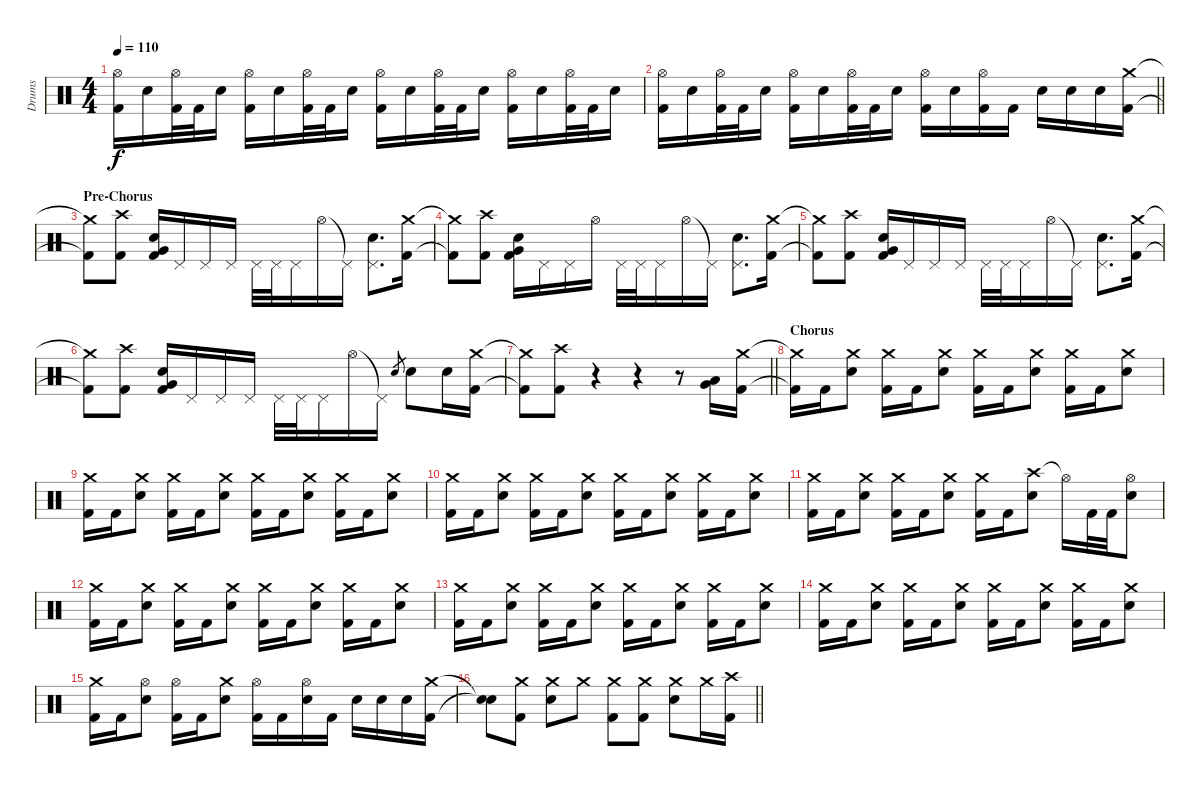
\track ("Drums" "Drums") {instrument percussion}
\staff {score}
\articulation defaults
\ts (4 4)
\tempo 110
\clef neutral
\ks c
("Hi-Hat (open)" "Kick (hit) 2").16{dy f} "Electric Snare (hit)".16 ("Hi-Hat (open)" "Kick (hit) 2").32 "Kick (hit) 2".32 "Electric Snare (hit)".16 ("Hi-Hat (open)" "Kick (hit) 2").16 "Electric Snare (hit)".16 ("Hi-Hat (open)" "Kick (hit) 2").32 "Kick (hit) 2".32 "Electric Snare (hit)".16 ("Hi-Hat (open)" "Kick (hit) 2").16 "Electric Snare (hit)".16 ("Hi-Hat (open)" "Kick (hit) 2").32 "Kick (hit) 2".32 "Electric Snare (hit)".16 ("Hi-Hat (open)" "Kick (hit) 2").16 "Electric Snare (hit)".16 ("Hi-Hat (open)" "Kick (hit) 2").32 "Kick (hit) 2".32 "Electric Snare (hit)".16 |
\barLineRight lightlight
("Hi-Hat (open)" "Kick (hit) 2").16 "Electric Snare (hit)".16 ("Hi-Hat (open)" "Kick (hit) 2").32 "Kick (hit) 2".32 "Electric Snare (hit)".16 ("Hi-Hat (open)" "Kick (hit) 2").16 "Electric Snare (hit)".16 ("Hi-Hat (open)" "Kick (hit) 2").32 "Kick (hit) 2".32 "Electric Snare (hit)".16 ("Hi-Hat (open)" "Kick (hit) 2").16 "Electric Snare (hit)".16 ("Hi-Hat (open)" "Kick (hit) 2").16 "Kick (hit) 2".16 "Electric Snare (hit)".16 "Electric Snare (hit)".16 "Electric Snare (hit)".16 ("Crash medium (hit)" "Kick (hit) 2").16 |
\section ("" "Pre-Chorus")
("Crash medium (hit)"{t} "Kick (hit) 2"{t}).8 ("Crash high (hit)" "Kick (hit) 2").8 ("Very Low Tom (hit)" "Electric Snare (hit)" "Kick (hit) 2").16 "Pedal Hi-Hat (hit)".16 "Pedal Hi-Hat (hit)".16 "Pedal Hi-Hat (hit)".16 "Pedal Hi-Hat (hit)".32 "Pedal Hi-Hat (hit)".32 "Pedal Hi-Hat (hit)".16 "Hi-Hat (open)".16 "Pedal Hi-Hat (hit)"{t}.16 ("Pedal Hi-Hat (hit)" "Electric Snare (hit)").8{d} ("Crash medium (hit)" "Kick (hit) 2").16 |
("Crash medium (hit)"{t} "Kick (hit) 2"{t}).8 ("Crash high (hit)" "Kick (hit) 2").8 ("Very Low Tom (hit)" "Electric Snare (hit)" "Kick (hit) 2").16 "Pedal Hi-Hat (hit)".16 "Pedal Hi-Hat (hit)".16 "Hi-Hat (open)".16 "Pedal Hi-Hat (hit)".32 "Pedal Hi-Hat (hit)".32 "Pedal Hi-Hat (hit)".16 "Hi-Hat (open)".16 "Pedal Hi-Hat (hit)"{t}.16 ("Pedal Hi-Hat (hit)" "Electric Snare (hit)").8{d} ("Crash medium (hit)" "Kick (hit) 2").16 |
("Crash medium (hit)"{t} "Kick (hit) 2"{t}).8 ("Crash high (hit)" "Kick (hit) 2").8 ("Very Low Tom (hit)" "Electric Snare (hit)" "Kick (hit) 2").16 "Pedal Hi-Hat (hit)".16 "Pedal Hi-Hat (hit)".16 "Pedal Hi-Hat (hit)".16 "Pedal Hi-Hat (hit)".32 "Pedal Hi-Hat (hit)".32 "Pedal Hi-Hat (hit)".16 "Hi-Hat (open)".16 "Pedal Hi-Hat (hit)"{t}.16 ("Pedal Hi-Hat (hit)" "Electric Snare (hit)").8{d} ("Crash medium (hit)" "Kick (hit) 2").16 |
("Crash medium (hit)"{t} "Kick (hit) 2"{t}).8 ("Crash high (hit)" "Kick (hit) 2").8 ("Very Low Tom (hit)" "Electric Snare (hit)" "Kick (hit) 2").16 "Pedal Hi-Hat (hit)".16 "Pedal Hi-Hat (hit)".16 "Pedal Hi-Hat (hit)".16 "Pedal Hi-Hat (hit)".32 "Pedal Hi-Hat (hit)".32 "Pedal Hi-Hat (hit)".16 "Hi-Hat (open)".16 "Pedal Hi-Hat (hit)"{t}.16 "Electric Snare (hit)".8{gr} "Electric Snare (hit)".8 "Electric Snare (hit)".16 ("Crash medium (hit)" "Kick (hit) 2").16 |
\barLineRight lightlight
("Crash medium (hit)"{t} "Kick (hit) 2"{t}).8 ("Crash high (hit)" "Kick (hit) 2").8 r.4 r.4 r.8 ("Low Tom (hit)" "Very Low Tom (hit)").16 ("Crash medium (hit)" "Kick (hit) 2").16 |
\section ("" "Chorus")
("Crash medium (hit)"{t} "Kick (hit) 2"{t}).16 "Kick (hit) 2".16 ("Crash medium (hit)" "Electric Snare (hit)").8 ("Crash medium (hit)" "Kick (hit) 2").16 "Kick (hit) 2".16 ("Crash medium (hit)" "Electric Snare (hit)").8 ("Crash medium (hit)" "Kick (hit) 2").16 "Kick (hit) 2".16 ("Crash medium (hit)" "Electric Snare (hit)").8 ("Crash medium (hit)" "Kick (hit) 2").16 "Kick (hit) 2".16 ("Crash medium (hit)" "Electric Snare (hit)").8 |
("Crash medium (hit)" "Kick (hit) 2").16 "Kick (hit) 2".16 ("Crash medium (hit)" "Electric Snare (hit)").8 ("Crash medium (hit)" "Kick (hit) 2").16 "Kick (hit) 2".16 ("Crash medium (hit)" "Electric Snare (hit)").8 ("Crash medium (hit)" "Kick (hit) 2").16 "Kick (hit) 2".16 ("Crash medium (hit)" "Electric Snare (hit)").8 ("Crash medium (hit)" "Kick (hit) 2").16 "Kick (hit) 2".16 ("Crash medium (hit)" "Electric Snare (hit)").8 |
("Crash medium (hit)" "Kick (hit) 2").16 "Kick (hit) 2".16 ("Crash medium (hit)" "Electric Snare (hit)").8 ("Crash medium (hit)" "Kick (hit) 2").16 "Kick (hit) 2".16 ("Crash medium (hit)" "Electric Snare (hit)").8 ("Crash medium (hit)" "Kick (hit) 2").16 "Kick (hit) 2".16 ("Crash medium (hit)" "Electric Snare (hit)").8 ("Crash medium (hit)" "Kick (hit) 2").16 "Kick (hit) 2".16 ("Crash medium (hit)" "Electric Snare (hit)").8 |
("Crash medium (hit)" "Kick (hit) 2").16 "Kick (hit) 2".16 ("Crash medium (hit)" "Electric Snare (hit)").8 ("Crash medium (hit)" "Kick (hit) 2").16 "Kick (hit) 2".16 ("Crash medium (hit)" "Electric Snare (hit)").8 ("Crash medium (hit)" "Kick (hit) 2").16 "Kick (hit) 2".16 ("Crash high (hit)" "Electric Snare (hit)").8 "Hi-Hat (open)"{t}.16 "Kick (hit) 2".32 "Kick (hit) 2".32 ("Hi-Hat (open)" "Electric Snare (hit)").8 |
("Crash medium (hit)" "Kick (hit) 2").16 "Kick (hit) 2".16 ("Crash medium (hit)" "Electric Snare (hit)").8 ("Crash medium (hit)" "Kick (hit) 2").16 "Kick (hit) 2".16 ("Crash medium (hit)" "Electric Snare (hit)").8 ("Crash medium (hit)" "Kick (hit) 2").16 "Kick (hit) 2".16 ("Crash medium (hit)" "Electric Snare (hit)").8 ("Crash medium (hit)" "Kick (hit) 2").16 "Kick (hit) 2".16 ("Crash medium (hit)" "Electric Snare (hit)").8 |
("Crash medium (hit)" "Kick (hit) 2").16 "Kick (hit) 2".16 ("Crash medium (hit)" "Electric Snare (hit)").8 ("Crash medium (hit)" "Kick (hit) 2").16 "Kick (hit) 2".16 ("Crash medium (hit)" "Electric Snare (hit)").8 ("Crash medium (hit)" "Kick (hit) 2").16 "Kick (hit) 2".16 ("Crash medium (hit)" "Electric Snare (hit)").8 ("Crash medium (hit)" "Kick (hit) 2").16 "Kick (hit) 2".16 ("Crash medium (hit)" "Electric Snare (hit)").8 |
("Crash medium (hit)" "Kick (hit) 2").16 "Kick (hit) 2".16 ("Crash medium (hit)" "Electric Snare (hit)").8 ("Crash medium (hit)" "Kick (hit) 2").16 "Kick (hit) 2".16 ("Crash medium (hit)" "Electric Snare (hit)").8 ("Crash medium (hit)" "Kick (hit) 2").16 "Kick (hit) 2".16 ("Crash medium (hit)" "Electric Snare (hit)").8 ("Crash medium (hit)" "Kick (hit) 2").16 "Kick (hit) 2".16 ("Crash medium (hit)" "Electric Snare (hit)").8 |
("Crash medium (hit)" "Kick (hit) 2").16 "Kick (hit) 2".16 ("Hi-Hat (open)" "Electric Snare (hit)").8 ("Hi-Hat (open)" "Kick (hit) 2").16 "Kick (hit) 2".16 ("Crash medium (hit)" "Electric Snare (hit)").8 ("Hi-Hat (open)" "Kick (hit) 2").16 "Kick (hit) 2".16 ("Hi-Hat (open)" "Electric Snare (hit)").16 "Kick (hit) 2".16 "Electric Snare (hit)".16 "Electric Snare (hit)".16 "Electric Snare (hit)".16 ("Crash medium (hit)" "Kick (hit) 2").16 |
\barLineRight lightlight
("Snare (hit)"{t} "Snare (hit)"{t}).8 ("Crash medium (hit)" "Kick (hit) 2").8 ("Crash medium (hit)" "Electric Snare (hit)").8 "Crash medium (hit)".8 ("Crash medium (hit)" "Kick (hit) 2").8 ("Crash medium (hit)" "Kick (hit) 2").8 ("Crash medium (hit)" "Electric Snare (hit)").8 "Crash medium (hit)".16 ("Crash high (hit)" "Kick (hit) 2").16
